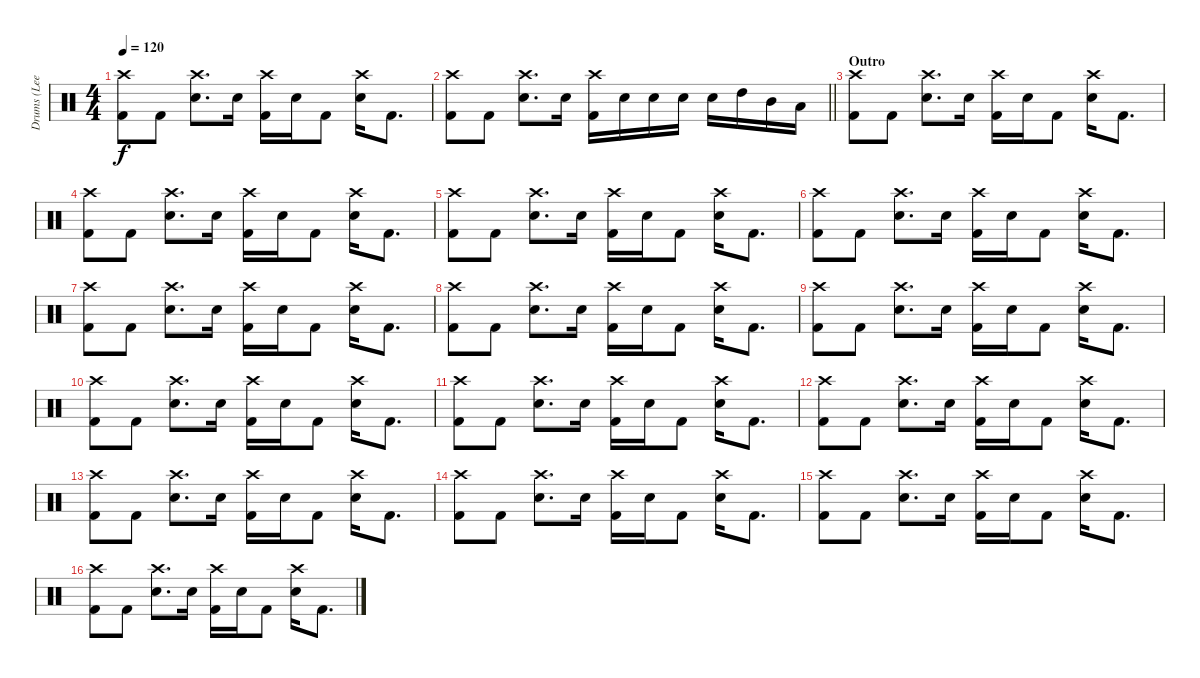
\track ("Drums (Lee)" "Drums (Lee") {instrument percussion}
\staff {score}
\articulation defaults
\ts (4 4)
\tempo 120
\clef neutral
\ks c
("Crash high (hit)" "Kick (hit) 2").8{dy f} "Kick (hit) 2".8 ("Crash high (hit)" "Electric Snare (hit)").8{d} "Electric Snare (hit)".16 ("Crash high (hit)" "Kick (hit) 2").16 "Electric Snare (hit)".16 "Kick (hit) 2".8 ("Crash high (hit)" "Electric Snare (hit)").16 "Kick (hit) 2".8{d} |
\barLineRight lightlight
("Crash high (hit)" "Kick (hit) 2").8 "Kick (hit) 2".8 ("Crash high (hit)" "Electric Snare (hit)").8{d} "Electric Snare (hit)".16 ("Crash high (hit)" "Kick (hit) 2").16 "Electric Snare (hit)".16 "Electric Snare (hit)".16 "Electric Snare (hit)".16 "Electric Snare (hit)".16 "High Tom (hit)".16 "Mid Tom (hit)".16 "Low Tom (hit)".16 |
\section ("" "Outro")
("Crash high (hit)" "Kick (hit) 2").8 "Kick (hit) 2".8 ("Crash high (hit)" "Electric Snare (hit)").8{d} "Electric Snare (hit)".16 ("Crash high (hit)" "Kick (hit) 2").16 "Electric Snare (hit)".16 "Kick (hit) 2".8 ("Crash high (hit)" "Electric Snare (hit)").16 "Kick (hit) 2".8{d} |
("Crash high (hit)" "Kick (hit) 2").8 "Kick (hit) 2".8 ("Crash high (hit)" "Electric Snare (hit)").8{d} "Electric Snare (hit)".16 ("Crash high (hit)" "Kick (hit) 2").16 "Electric Snare (hit)".16 "Kick (hit) 2".8 ("Crash high (hit)" "Electric Snare (hit)").16 "Kick (hit) 2".8{d} |
("Crash high (hit)" "Kick (hit) 2").8 "Kick (hit) 2".8 ("Crash high (hit)" "Electric Snare (hit)").8{d} "Electric Snare (hit)".16 ("Crash high (hit)" "Kick (hit) 2").16 "Electric Snare (hit)".16 "Kick (hit) 2".8 ("Crash high (hit)" "Electric Snare (hit)").16 "Kick (hit) 2".8{d} |
("Crash high (hit)" "Kick (hit) 2").8 "Kick (hit) 2".8 ("Crash high (hit)" "Electric Snare (hit)").8{d} "Electric Snare (hit)".16 ("Crash high (hit)" "Kick (hit) 2").16 "Electric Snare (hit)".16 "Kick (hit) 2".8 ("Crash high (hit)" "Electric Snare (hit)").16 "Kick (hit) 2".8{d} |
("Crash high (hit)" "Kick (hit) 2").8 "Kick (hit) 2".8 ("Crash high (hit)" "Electric Snare (hit)").8{d} "Electric Snare (hit)".16 ("Crash high (hit)" "Kick (hit) 2").16 "Electric Snare (hit)".16 "Kick (hit) 2".8 ("Crash high (hit)" "Electric Snare (hit)").16 "Kick (hit) 2".8{d} |
("Crash high (hit)" "Kick (hit) 2").8 "Kick (hit) 2".8 ("Crash high (hit)" "Electric Snare (hit)").8{d} "Electric Snare (hit)".16 ("Crash high (hit)" "Kick (hit) 2").16 "Electric Snare (hit)".16 "Kick (hit) 2".8 ("Crash high (hit)" "Electric Snare (hit)").16 "Kick (hit) 2".8{d} |
("Crash high (hit)" "Kick (hit) 2").8 "Kick (hit) 2".8 ("Crash high (hit)" "Electric Snare (hit)").8{d} "Electric Snare (hit)".16 ("Crash high (hit)" "Kick (hit) 2").16 "Electric Snare (hit)".16 "Kick (hit) 2".8 ("Crash high (hit)" "Electric Snare (hit)").16 "Kick (hit) 2".8{d} |
("Crash high (hit)" "Kick (hit) 2").8 "Kick (hit) 2".8 ("Crash high (hit)" "Electric Snare (hit)").8{d} "Electric Snare (hit)".16 ("Crash high (hit)" "Kick (hit) 2").16 "Electric Snare (hit)".16 "Kick (hit) 2".8 ("Crash high (hit)" "Electric Snare (hit)").16 "Kick (hit) 2".8{d} |
("Crash high (hit)" "Kick (hit) 2").8 "Kick (hit) 2".8 ("Crash high (hit)" "Electric Snare (hit)").8{d} "Electric Snare (hit)".16 ("Crash high (hit)" "Kick (hit) 2").16 "Electric Snare (hit)".16 "Kick (hit) 2".8 ("Crash high (hit)" "Electric Snare (hit)").16 "Kick (hit) 2".8{d} |
("Crash high (hit)" "Kick (hit) 2").8 "Kick (hit) 2".8 ("Crash high (hit)" "Electric Snare (hit)").8{d} "Electric Snare (hit)".16 ("Crash high (hit)" "Kick (hit) 2").16 "Electric Snare (hit)".16 "Kick (hit) 2".8 ("Crash high (hit)" "Electric Snare (hit)").16 "Kick (hit) 2".8{d} |
("Crash high (hit)" "Kick (hit) 2").8 "Kick (hit) 2".8 ("Crash high (hit)" "Electric Snare (hit)").8{d} "Electric Snare (hit)".16 ("Crash high (hit)" "Kick (hit) 2").16 "Electric Snare (hit)".16 "Kick (hit) 2".8 ("Crash high (hit)" "Electric Snare (hit)").16 "Kick (hit) 2".8{d} |
("Crash high (hit)" "Kick (hit) 2").8 "Kick (hit) 2".8 ("Crash high (hit)" "Electric Snare (hit)").8{d} "Electric Snare (hit)".16 ("Crash high (hit)" "Kick (hit) 2").16 "Electric Snare (hit)".16 "Kick (hit) 2".8 ("Crash high (hit)" "Electric Snare (hit)").16 "Kick (hit) 2".8{d} |
("Crash high (hit)" "Kick (hit) 2").8 "Kick (hit) 2".8 ("Crash high (hit)" "Electric Snare (hit)").8{d} "Electric Snare (hit)".16 ("Crash high (hit)" "Kick (hit) 2").16 "Electric Snare (hit)".16 "Kick (hit) 2".8 ("Crash high (hit)" "Electric Snare (hit)").16 "Kick (hit) 2".8{d} |
("Crash high (hit)" "Kick (hit) 2").8 "Kick (hit) 2".8 ("Crash high (hit)" "Electric Snare (hit)").8{d} "Electric Snare (hit)".16 ("Crash high (hit)" "Kick (hit) 2").16 "Electric Snare (hit)".16 "Kick (hit) 2".8 ("Crash high (hit)" "Electric Snare (hit)").16 "Kick (hit) 2".8{d}
